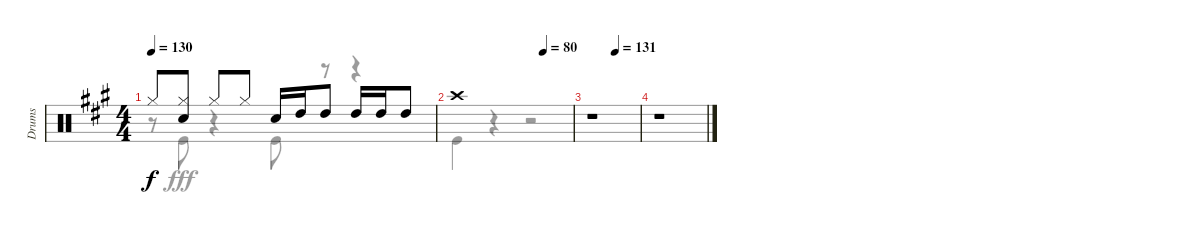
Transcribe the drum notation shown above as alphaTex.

\track ("Drums" "Drums") {instrument percussion}
\staff {score}
\articulation defaults
\voice
\ts (4 4)
\tempo 130
\clef neutral
\ks a "Hi-Hat (closed)".8{dy f}
("Hi-Hat (closed)" "Snare (hit) 2").8 "Hi-Hat (closed)".8 "Hi-Hat (closed)".8 "Snare (hit) 2".16 "High Tom (hit)".16 "High Tom (hit)".8 "High Tom (hit)".16 "High Tom (hit)".16 "High Tom (hit)".8 |
\tempo (80 0.75)
"Crash high (hit)".1 |
\tempo (131 0.5)
r.1 |
r.1
\voice
\clef neutral
\ottava regular
\simile none
\ks a
r.8{dy fff} "Kick (hit)".8 r.4 "Kick (hit)".8 r.8 r.4 |
"Kick (hit)".4 r.4 r.2 |
r.1 |
r.1
